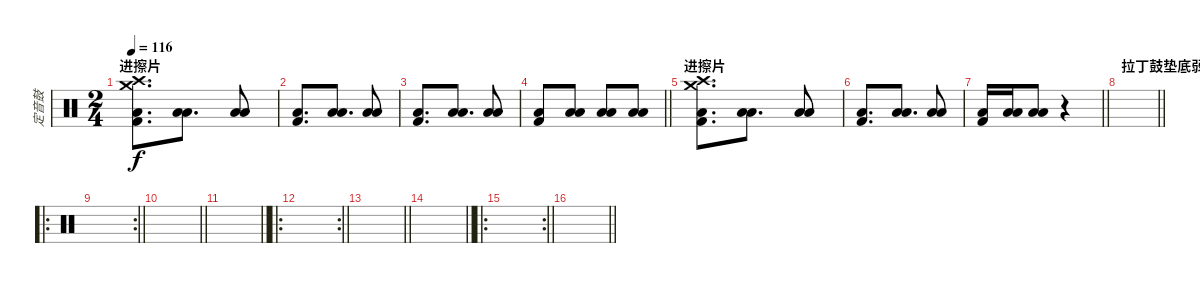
\track ("定音鼓" "定音鼓") {instrument percussion}
\staff {score}
\articulation defaults
\ts (2 4)
\section ("" "进擦片")
\tempo 116
\clef neutral
\ks c
("Crash high (hit)" "Crash medium (hit)" "Kick (hit) 2" "Low Floor Tom (hit)").8{d dy f} ("Low Floor Tom (hit)" "Low Floor Tom (hit)").8{d} ("Low Floor Tom (hit)" "Low Floor Tom (hit)").8 |
("Kick (hit) 2" "Low Floor Tom (hit)").8{d} ("Low Floor Tom (hit)" "Low Floor Tom (hit)").8{d} ("Low Floor Tom (hit)" "Low Floor Tom (hit)").8 |
("Kick (hit) 2" "Low Floor Tom (hit)").8{d} ("Low Floor Tom (hit)" "Low Floor Tom (hit)").8{d} ("Low Floor Tom (hit)" "Low Floor Tom (hit)").8 |
\barLineRight lightlight
("Kick (hit) 2" "Low Floor Tom (hit)").8 ("Low Floor Tom (hit)" "Low Floor Tom (hit)").8 ("Low Floor Tom (hit)" "Low Floor Tom (hit)").8 ("Low Floor Tom (hit)" "Low Floor Tom (hit)").8 |
\section ("" "进擦片")
("Crash high (hit)" "Crash medium (hit)" "Kick (hit) 2" "Low Floor Tom (hit)").8{d} ("Low Floor Tom (hit)" "Low Floor Tom (hit)").8{d} ("Low Floor Tom (hit)" "Low Floor Tom (hit)").8 |
("Kick (hit) 2" "Low Floor Tom (hit)").8{d} ("Low Floor Tom (hit)" "Low Floor Tom (hit)").8{d} ("Low Floor Tom (hit)" "Low Floor Tom (hit)").8 |
\barLineRight lightlight
("Kick (hit) 2" "Low Floor Tom (hit)").16 ("Low Floor Tom (hit)" "Low Floor Tom (hit)").16 ("Low Floor Tom (hit)" "Low Floor Tom (hit)").8 r.4 |
\section ("" "拉丁鼓垫底弱拍")
\barLineRight lightlight
|
\ro
\rc 2
\barLineRight lightlight
|
\barLineRight lightlight
|
\barLineRight lightlight
|
\ro
\rc 2
\barLineRight lightlight
|
\barLineRight lightlight
|
\barLineRight lightlight
|
\ro
\rc 2
\barLineRight lightlight
|
\barLineRight lightlight
